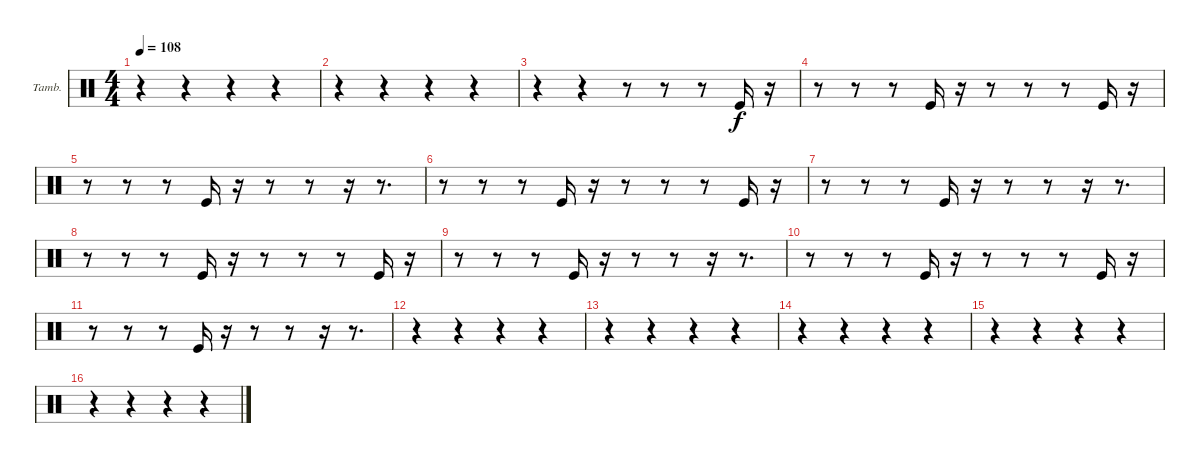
\bracketExtendMode groupsimilarinstruments
\firstSystemTrackNameOrientation horizontal
\otherSystemsTrackNameOrientation horizontal
\track ("Tambourine" "Tamb.") {instrument percussion}
\staff {score}
\articulation defaults
\ts (4 4)
\tempo 108
\clef neutral
\ks c
r.4{dy f} r.4 r.4 r.4 |
r.4 r.4 r.4 r.4 |
r.4 r.4 r.8 r.8 r.8 "Kick (hit)".16 r.16 |
r.8 r.8 r.8 "Kick (hit)".16 r.16 r.8 r.8 r.8 "Kick (hit)".16 r.16 |
r.8 r.8 r.8 "Kick (hit)".16 r.16 r.8 r.8 r.16 r.8{d} |
r.8 r.8 r.8 "Kick (hit)".16 r.16 r.8 r.8 r.8 "Kick (hit)".16 r.16 |
r.8 r.8 r.8 "Kick (hit)".16 r.16 r.8 r.8 r.16 r.8{d} |
r.8 r.8 r.8 "Kick (hit)".16 r.16 r.8 r.8 r.8 "Kick (hit)".16 r.16 |
r.8 r.8 r.8 "Kick (hit)".16 r.16 r.8 r.8 r.16 r.8{d} |
r.8 r.8 r.8 "Kick (hit)".16 r.16 r.8 r.8 r.8 "Kick (hit)".16 r.16 |
r.8 r.8 r.8 "Kick (hit)".16 r.16 r.8 r.8 r.16 r.8{d} |
r.4 r.4 r.4 r.4 |
r.4 r.4 r.4 r.4 |
r.4 r.4 r.4 r.4 |
r.4 r.4 r.4 r.4 |
r.4 r.4 r.4 r.4
